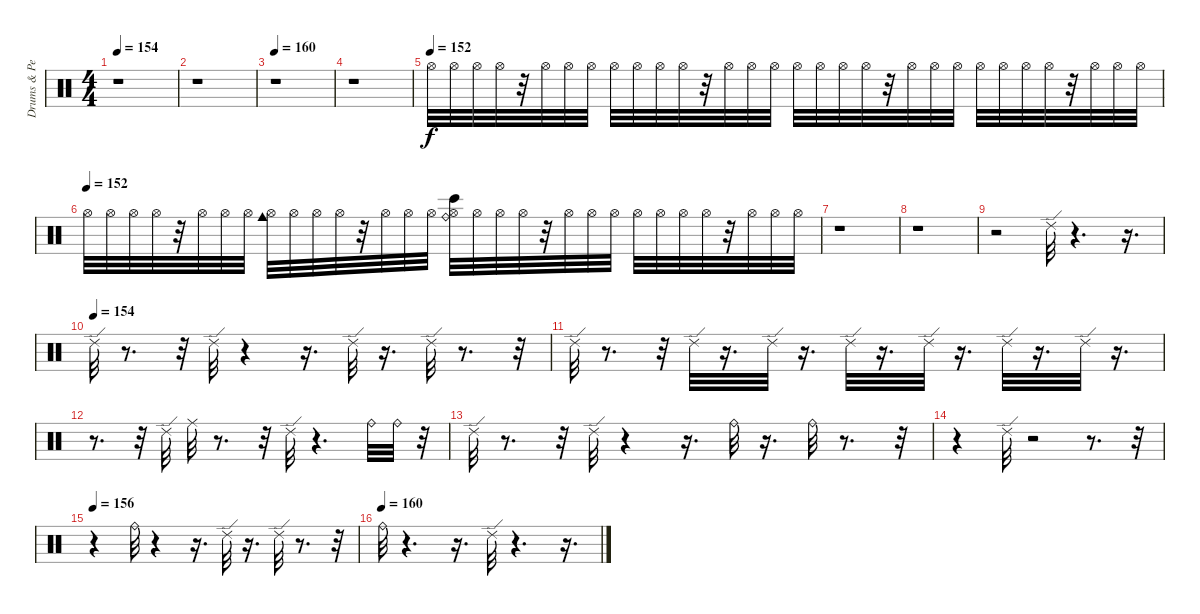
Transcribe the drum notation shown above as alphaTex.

\track ("Drums & Percussion" "Drums & Pe") {instrument percussion}
\staff {score}
\articulation defaults
\ts (4 4)
\tempo 154
\clef neutral
\ks c
r.1{dy ppp} |
r.1 |
\tempo 160
r.1 |
r.1 |
\tempo (152)
"Hi-Hat (open)".32{dy f} "Hi-Hat (open)".32 "Hi-Hat (open)".32 "Hi-Hat (open)".32 r.32 "Hi-Hat (open)".32 "Hi-Hat (open)".32 "Hi-Hat (open)".32 "Hi-Hat (open)".32 "Hi-Hat (open)".32 "Hi-Hat (open)".32 "Hi-Hat (open)".32 r.32 "Hi-Hat (open)".32 "Hi-Hat (open)".32 "Hi-Hat (open)".32 "Hi-Hat (open)".32 "Hi-Hat (open)".32 "Hi-Hat (open)".32 "Hi-Hat (open)".32 r.32 "Hi-Hat (open)".32 "Hi-Hat (open)".32 "Hi-Hat (open)".32 "Hi-Hat (open)".32 "Hi-Hat (open)".32 "Hi-Hat (open)".32 "Hi-Hat (open)".32 r.32 "Hi-Hat (open)".32 "Hi-Hat (open)".32 "Hi-Hat (open)".32 |
\tempo (152)
"Hi-Hat (open)".32 "Hi-Hat (open)".32 "Hi-Hat (open)".32 "Hi-Hat (open)".32 r.32 "Hi-Hat (open)".32 "Hi-Hat (open)".32 "Hi-Hat (open)".32 ("Hi-Hat (open)" "Cowbell medium (hit)").32 "Hi-Hat (open)".32 "Hi-Hat (open)".32 "Hi-Hat (open)".32 r.32 "Hi-Hat (open)".32 "Hi-Hat (open)".32 "Hi-Hat (open)".32 ("Hi-Hat (open)" "Ride (bell)" "Bongo High (hit)").32 "Hi-Hat (open)".32 "Hi-Hat (open)".32 "Hi-Hat (open)".32 r.32 "Hi-Hat (open)".32 "Hi-Hat (open)".32 "Hi-Hat (open)".32 "Hi-Hat (open)".32 "Hi-Hat (open)".32 "Hi-Hat (open)".32 "Hi-Hat (open)".32 r.32 "Hi-Hat (open)".32 "Hi-Hat (open)".32 "Hi-Hat (open)".32 |
r.1 |
r.1 |
r.2 "Ride (edge) 2".32 r.4{d} r.16{d} |
\tempo (154)
"Ride (edge) 2".32 r.8{d} r.32 "Ride (edge) 2".32 r.4 r.16{d} "Ride (edge) 2".32 r.16{d} "Ride (edge) 2".32 r.8{d} r.32 |
"Ride (edge) 2".32 r.8{d} r.32 "Ride (edge) 2".32 r.16{d} "Ride (edge) 2".32 r.16{d} "Ride (edge) 2".32 r.16{d} "Ride (edge) 2".32 r.16{d} "Ride (edge) 2".32 r.16{d} "Ride (edge) 2".32 r.16{d} |
r.8{d} r.32 "Ride (edge) 2".32 "Ride (middle)".32 r.8{d} r.32 "Ride (edge) 2".32 r.4{d} "Ride (bell)".32 "Ride (bell)".32 r.32 |
"Ride (edge) 2".32 r.8{d} r.32 "Ride (edge) 2".32 r.4 r.16{d} "Ride (bell)".32 r.16{d} "Ride (bell)".32 r.8{d} r.32 |
r.4 "Ride (edge) 2".32 r.2 r.8{d} r.32 |
\tempo 156
r.4 "Ride (bell)".32 r.4 r.16{d} "Ride (edge) 2".32 r.16{d} "Ride (edge) 2".32 r.8{d} r.32 |
\tempo (160)
"Ride (bell)".32 r.4{d} r.16{d} "Ride (edge) 2".32 r.4{d} r.16{d}
